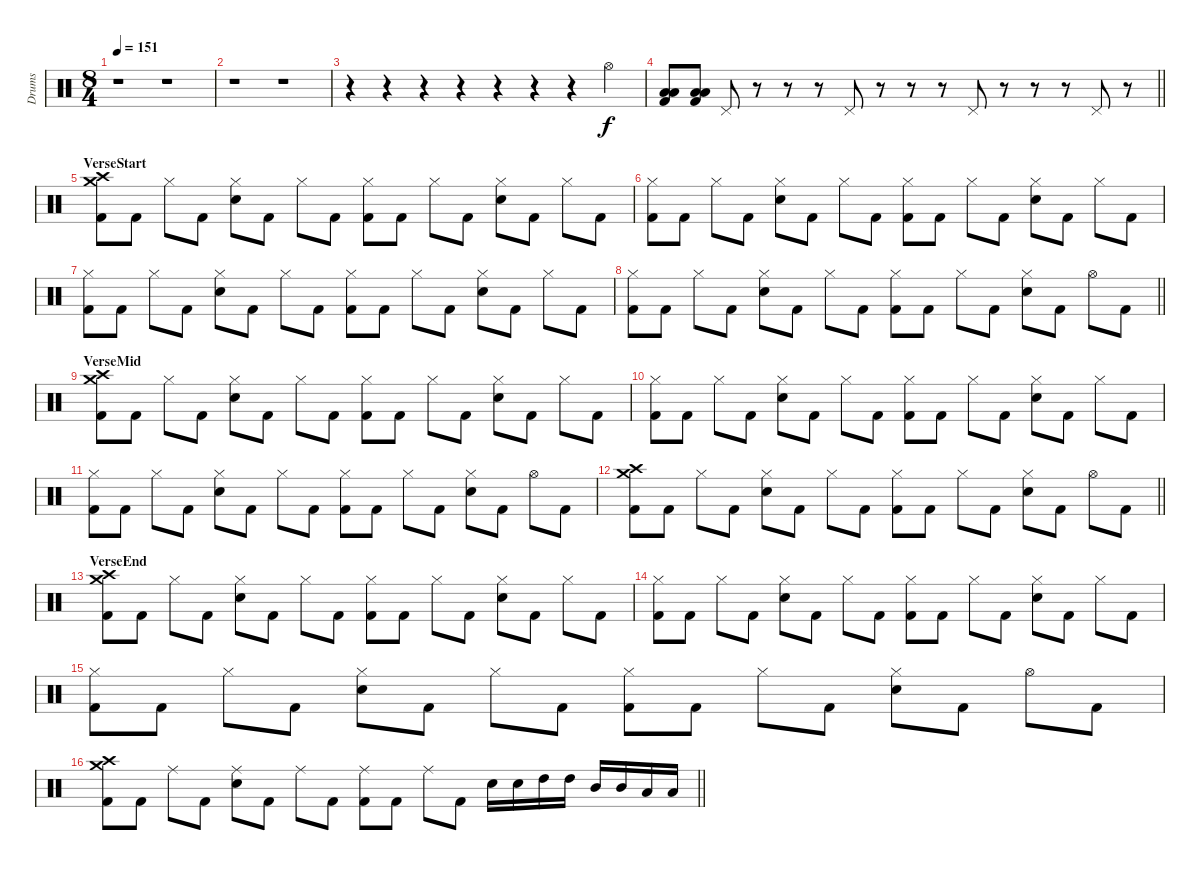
\track ("Drums" "Drums") {instrument percussion}
\staff {score}
\articulation defaults
\ts (8 4)
\tempo 151
\clef neutral
\ks c
r.1{dy f} r.1 |
r.1 r.1 |
r.4 r.4 r.4 r.4 r.4 r.4 r.4 "Hi-Hat (open)".4 |
\barLineRight lightlight
("Low Floor Tom (hit)" "Low Floor Tom (hit)" "Kick (hit) 2").8 ("Low Floor Tom (hit)" "Low Floor Tom (hit)" "Kick (hit) 2").8 "Pedal Hi-Hat (hit)".8 r.8 r.8 r.8 "Pedal Hi-Hat (hit)".8 r.8 r.8 r.8 "Pedal Hi-Hat (hit)".8 r.8 r.8 r.8 "Pedal Hi-Hat (hit)".8 r.8 |
\section ("" "VerseStart")
("Crash high (hit)" "Crash medium (hit)" "Kick (hit) 2").8 "Kick (hit) 2".8 "Hi-Hat (closed)".8 "Kick (hit) 2".8 ("Hi-Hat (closed)" "Electric Snare (hit)").8 "Kick (hit) 2".8 "Hi-Hat (closed)".8 "Kick (hit) 2".8 ("Hi-Hat (closed)" "Kick (hit) 2").8 "Kick (hit) 2".8 "Hi-Hat (closed)".8 "Kick (hit) 2".8 ("Hi-Hat (closed)" "Electric Snare (hit)").8 "Kick (hit) 2".8 "Hi-Hat (closed)".8 "Kick (hit) 2".8 |
("Hi-Hat (closed)" "Kick (hit) 2").8 "Kick (hit) 2".8 "Hi-Hat (closed)".8 "Kick (hit) 2".8 ("Hi-Hat (closed)" "Electric Snare (hit)").8 "Kick (hit) 2".8 "Hi-Hat (closed)".8 "Kick (hit) 2".8 ("Hi-Hat (closed)" "Kick (hit) 2").8 "Kick (hit) 2".8 "Hi-Hat (closed)".8 "Kick (hit) 2".8 ("Hi-Hat (closed)" "Electric Snare (hit)").8 "Kick (hit) 2".8 "Hi-Hat (closed)".8 "Kick (hit) 2".8 |
("Hi-Hat (closed)" "Kick (hit) 2").8 "Kick (hit) 2".8 "Hi-Hat (closed)".8 "Kick (hit) 2".8 ("Hi-Hat (closed)" "Electric Snare (hit)").8 "Kick (hit) 2".8 "Hi-Hat (closed)".8 "Kick (hit) 2".8 ("Hi-Hat (closed)" "Kick (hit) 2").8 "Kick (hit) 2".8 "Hi-Hat (closed)".8 "Kick (hit) 2".8 ("Hi-Hat (closed)" "Electric Snare (hit)").8 "Kick (hit) 2".8 "Hi-Hat (closed)".8 "Kick (hit) 2".8 |
\barLineRight lightlight
("Hi-Hat (closed)" "Kick (hit) 2").8 "Kick (hit) 2".8 "Hi-Hat (closed)".8 "Kick (hit) 2".8 ("Hi-Hat (closed)" "Electric Snare (hit)").8 "Kick (hit) 2".8 "Hi-Hat (closed)".8 "Kick (hit) 2".8 ("Hi-Hat (closed)" "Kick (hit) 2").8 "Kick (hit) 2".8 "Hi-Hat (closed)".8 "Kick (hit) 2".8 ("Hi-Hat (closed)" "Electric Snare (hit)").8 "Kick (hit) 2".8 "Hi-Hat (open)".8 "Kick (hit) 2".8 |
\section ("" "VerseMid")
("Crash high (hit)" "Crash medium (hit)" "Kick (hit) 2").8 "Kick (hit) 2".8 "Hi-Hat (closed)".8 "Kick (hit) 2".8 ("Hi-Hat (closed)" "Electric Snare (hit)").8 "Kick (hit) 2".8 "Hi-Hat (closed)".8 "Kick (hit) 2".8 ("Hi-Hat (closed)" "Kick (hit) 2").8 "Kick (hit) 2".8 "Hi-Hat (closed)".8 "Kick (hit) 2".8 ("Hi-Hat (closed)" "Electric Snare (hit)").8 "Kick (hit) 2".8 "Hi-Hat (closed)".8 "Kick (hit) 2".8 |
("Hi-Hat (closed)" "Kick (hit) 2").8 "Kick (hit) 2".8 "Hi-Hat (closed)".8 "Kick (hit) 2".8 ("Hi-Hat (closed)" "Electric Snare (hit)").8 "Kick (hit) 2".8 "Hi-Hat (closed)".8 "Kick (hit) 2".8 ("Hi-Hat (closed)" "Kick (hit) 2").8 "Kick (hit) 2".8 "Hi-Hat (closed)".8 "Kick (hit) 2".8 ("Hi-Hat (closed)" "Electric Snare (hit)").8 "Kick (hit) 2".8 "Hi-Hat (closed)".8 "Kick (hit) 2".8 |
("Hi-Hat (closed)" "Kick (hit) 2").8 "Kick (hit) 2".8 "Hi-Hat (closed)".8 "Kick (hit) 2".8 ("Hi-Hat (closed)" "Electric Snare (hit)").8 "Kick (hit) 2".8 "Hi-Hat (closed)".8 "Kick (hit) 2".8 ("Hi-Hat (closed)" "Kick (hit) 2").8 "Kick (hit) 2".8 "Hi-Hat (closed)".8 "Kick (hit) 2".8 ("Hi-Hat (closed)" "Electric Snare (hit)").8 "Kick (hit) 2".8 "Hi-Hat (open)".8 "Kick (hit) 2".8 |
\barLineRight lightlight
("Crash medium (hit)" "Crash high (hit)" "Kick (hit) 2").8 "Kick (hit) 2".8 "Hi-Hat (closed)".8 "Kick (hit) 2".8 ("Hi-Hat (closed)" "Electric Snare (hit)").8 "Kick (hit) 2".8 "Hi-Hat (closed)".8 "Kick (hit) 2".8 ("Hi-Hat (closed)" "Kick (hit) 2").8 "Kick (hit) 2".8 "Hi-Hat (closed)".8 "Kick (hit) 2".8 ("Hi-Hat (closed)" "Electric Snare (hit)").8 "Kick (hit) 2".8 "Hi-Hat (open)".8 "Kick (hit) 2".8 |
\section ("" "VerseEnd")
("Crash high (hit)" "Crash medium (hit)" "Kick (hit) 2").8 "Kick (hit) 2".8 "Hi-Hat (closed)".8 "Kick (hit) 2".8 ("Hi-Hat (closed)" "Electric Snare (hit)").8 "Kick (hit) 2".8 "Hi-Hat (closed)".8 "Kick (hit) 2".8 ("Hi-Hat (closed)" "Kick (hit) 2").8 "Kick (hit) 2".8 "Hi-Hat (closed)".8 "Kick (hit) 2".8 ("Hi-Hat (closed)" "Electric Snare (hit)").8 "Kick (hit) 2".8 "Hi-Hat (closed)".8 "Kick (hit) 2".8 |
("Hi-Hat (closed)" "Kick (hit) 2").8 "Kick (hit) 2".8 "Hi-Hat (closed)".8 "Kick (hit) 2".8 ("Hi-Hat (closed)" "Electric Snare (hit)").8 "Kick (hit) 2".8 "Hi-Hat (closed)".8 "Kick (hit) 2".8 ("Hi-Hat (closed)" "Kick (hit) 2").8 "Kick (hit) 2".8 "Hi-Hat (closed)".8 "Kick (hit) 2".8 ("Hi-Hat (closed)" "Electric Snare (hit)").8 "Kick (hit) 2".8 "Hi-Hat (closed)".8 "Kick (hit) 2".8 |
("Hi-Hat (closed)" "Kick (hit) 2").8 "Kick (hit) 2".8 "Hi-Hat (closed)".8 "Kick (hit) 2".8 ("Hi-Hat (closed)" "Electric Snare (hit)").8 "Kick (hit) 2".8 "Hi-Hat (closed)".8 "Kick (hit) 2".8 ("Hi-Hat (closed)" "Kick (hit) 2").8 "Kick (hit) 2".8 "Hi-Hat (closed)".8 "Kick (hit) 2".8 ("Hi-Hat (closed)" "Electric Snare (hit)").8 "Kick (hit) 2".8 "Hi-Hat (open)".8 "Kick (hit) 2".8 |
\barLineRight lightlight
("Crash medium (hit)" "Crash high (hit)" "Kick (hit) 2").8 "Kick (hit) 2".8 "Ride (middle)".8 "Kick (hit) 2".8 ("Ride (middle)" "Electric Snare (hit)").8 "Kick (hit) 2".8 "Ride (middle)".8 "Kick (hit) 2".8 ("Ride (middle)" "Kick (hit) 2").8 "Kick (hit) 2".8 "Ride (middle)".8 "Kick (hit) 2".8 "Electric Snare (hit)".16 "Electric Snare (hit)".16 "High Tom (hit)".16 "High Tom (hit)".16 "Mid Tom (hit)".16 "Mid Tom (hit)".16 "Low Tom (hit)".16 "Low Tom (hit)".16
